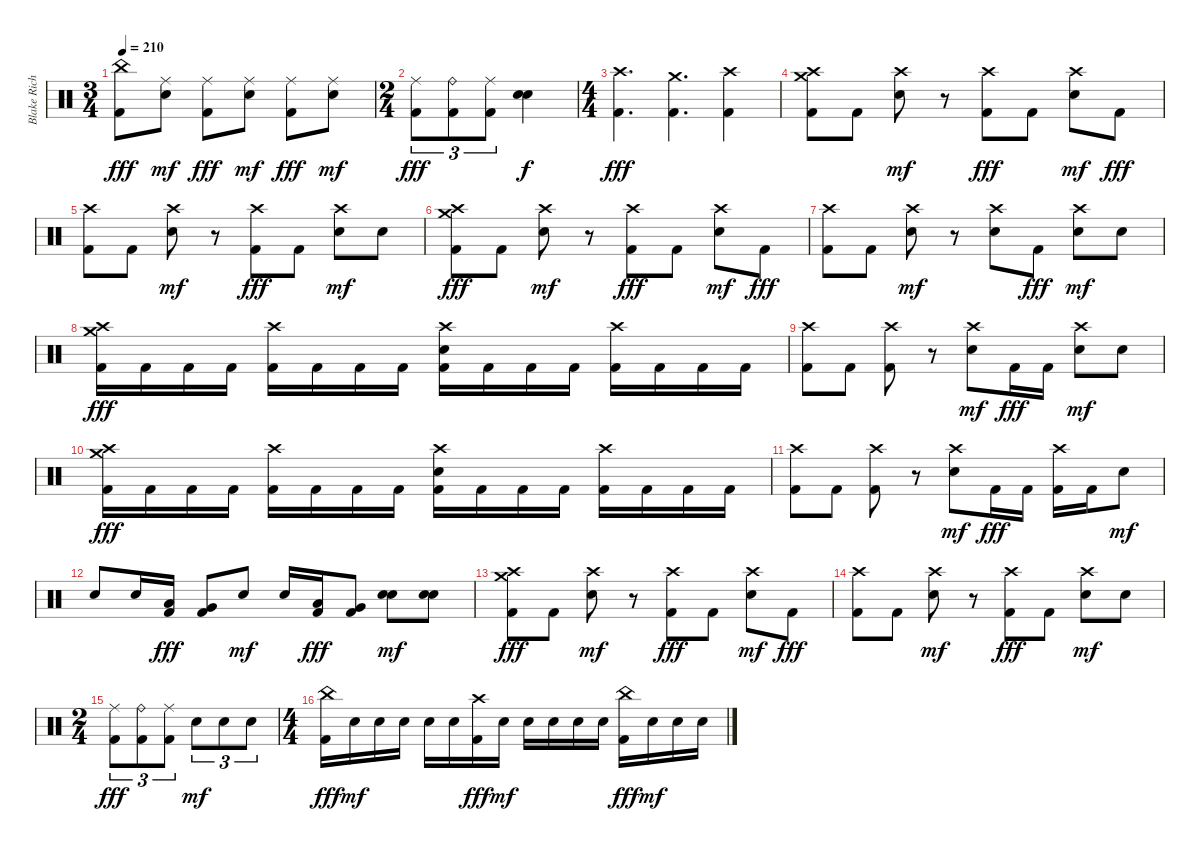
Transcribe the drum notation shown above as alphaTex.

\track ("Blake Richardson" "Blake Rich") {instrument percussion}
\staff {score}
\articulation defaults
\ts (3 4)
\tempo 210
\clef neutral
\ks c
("China (hit)" "Kick (hit) 2").8{dy fff} ("Ride (middle)" "Electric Snare (hit)").8{dy mf} ("Ride (middle)" "Kick (hit) 2").8{dy fff} ("Ride (middle)" "Electric Snare (hit)").8{dy mf} ("Ride (middle)" "Kick (hit) 2").8{dy fff} ("Ride (middle)" "Electric Snare (hit)").8{dy mf} |
\ts (2 4)
("Ride (middle)" "Kick (hit) 2").8{tu (3 2) dy fff} ("Ride (bell)" "Kick (hit) 2").8{tu (3 2)} ("Ride (middle)" "Kick (hit) 2").8{tu (3 2)} ("Electric Snare (hit)" "Electric Snare (hit)").4{bu 480 dy f} |
\ts (4 4)
("Crash high (hit)" "Kick (hit) 2").4{d dy fff} ("Crash medium (hit)" "Kick (hit) 2").4{d} ("Crash high (hit)" "Kick (hit) 2").4 |
("Crash medium (hit)" "Crash high (hit)" "Kick (hit) 2").8 "Kick (hit) 2".8 ("Crash high (hit)" "Electric Snare (hit)").8{dy mf} r.8 ("Crash high (hit)" "Kick (hit) 2").8{dy fff} "Kick (hit) 2".8 ("Crash high (hit)" "Electric Snare (hit)").8{dy mf} "Kick (hit) 2".8{dy fff} |
("Crash high (hit)" "Kick (hit) 2").8 "Kick (hit) 2".8 ("Crash high (hit)" "Electric Snare (hit)").8{dy mf} r.8 ("Crash high (hit)" "Kick (hit) 2").8{dy fff} "Kick (hit) 2".8 ("Crash high (hit)" "Electric Snare (hit)").8{dy mf} "Electric Snare (hit)".8 |
("Crash medium (hit)" "Crash high (hit)" "Kick (hit) 2").8{dy fff} "Kick (hit) 2".8 ("Crash high (hit)" "Electric Snare (hit)").8{dy mf} r.8 ("Crash high (hit)" "Kick (hit) 2").8{dy fff} "Kick (hit) 2".8 ("Crash high (hit)" "Electric Snare (hit)").8{dy mf} "Kick (hit) 2".8{dy fff} |
("Crash high (hit)" "Kick (hit) 2").8 "Kick (hit) 2".8 ("Crash high (hit)" "Electric Snare (hit)").8{dy mf} r.8 ("Crash high (hit)" "Electric Snare (hit)").8 "Kick (hit) 2".8{dy fff} ("Crash high (hit)" "Electric Snare (hit)").8{dy mf} "Electric Snare (hit)".8 |
("Crash medium (hit)" "Crash high (hit)" "Kick (hit) 2").16{dy fff} "Kick (hit) 2".16 "Kick (hit) 2".16 "Kick (hit) 2".16 ("Crash high (hit)" "Kick (hit) 2").16 "Kick (hit) 2".16 "Kick (hit) 2".16 "Kick (hit) 2".16 ("Crash high (hit)" "Electric Snare (hit)" "Kick (hit) 2").16 "Kick (hit) 2".16 "Kick (hit) 2".16 "Kick (hit) 2".16 ("Crash high (hit)" "Kick (hit) 2").16 "Kick (hit) 2".16 "Kick (hit) 2".16 "Kick (hit) 2".16 |
("Crash high (hit)" "Kick (hit) 2").8 "Kick (hit) 2".8 ("Crash high (hit)" "Kick (hit) 2").8 r.8 ("Crash high (hit)" "Electric Snare (hit)").8{dy mf} "Kick (hit) 2".16{dy fff} "Kick (hit) 2".16 ("Crash high (hit)" "Electric Snare (hit)").8{dy mf} "Electric Snare (hit)".8 |
("Crash medium (hit)" "Crash high (hit)" "Kick (hit) 2").16{dy fff} "Kick (hit) 2".16 "Kick (hit) 2".16 "Kick (hit) 2".16 ("Crash high (hit)" "Kick (hit) 2").16 "Kick (hit) 2".16 "Kick (hit) 2".16 "Kick (hit) 2".16 ("Crash high (hit)" "Electric Snare (hit)" "Kick (hit) 2").16 "Kick (hit) 2".16 "Kick (hit) 2".16 "Kick (hit) 2".16 ("Crash high (hit)" "Kick (hit) 2").16 "Kick (hit) 2".16 "Kick (hit) 2".16 "Kick (hit) 2".16 |
("Crash high (hit)" "Kick (hit) 2").8 "Kick (hit) 2".8 ("Crash high (hit)" "Kick (hit) 2").8 r.8 ("Crash high (hit)" "Electric Snare (hit)").8{dy mf} "Kick (hit) 2".16{dy fff} "Kick (hit) 2".16 ("Crash high (hit)" "Kick (hit) 2").16 "Kick (hit) 2".16 "Electric Snare (hit)".8{dy mf} |
"Electric Snare (hit)".8 "Electric Snare (hit)".16 ("Low Tom (hit)" "Kick (hit) 2").16{dy fff} ("Very Low Tom (hit)" "Kick (hit) 2").8 "Electric Snare (hit)".8{dy mf} "Electric Snare (hit)".16 ("Low Tom (hit)" "Kick (hit) 2").16{dy fff} ("Very Low Tom (hit)" "Kick (hit) 2").8 ("Electric Snare (hit)" "Electric Snare (hit)").8{bu 480 dy mf} ("Electric Snare (hit)" "Electric Snare (hit)").8{bu 480} |
("Crash medium (hit)" "Crash high (hit)" "Kick (hit) 2").8{dy fff} "Kick (hit) 2".8 ("Crash high (hit)" "Electric Snare (hit)").8{dy mf} r.8 ("Crash high (hit)" "Kick (hit) 2").8{dy fff} "Kick (hit) 2".8 ("Crash high (hit)" "Electric Snare (hit)").8{dy mf} "Kick (hit) 2".8{dy fff} |
("Crash high (hit)" "Kick (hit) 2").8 "Kick (hit) 2".8 ("Crash high (hit)" "Electric Snare (hit)").8{dy mf} r.8 ("Crash high (hit)" "Kick (hit) 2").8{dy fff} "Kick (hit) 2".8 ("Crash high (hit)" "Electric Snare (hit)").8{dy mf} "Electric Snare (hit)".8 |
\ts (2 4)
("Ride (middle)" "Kick (hit) 2").8{tu (3 2) dy fff} ("Ride (bell)" "Kick (hit) 2").8{tu (3 2)} ("Ride (middle)" "Kick (hit) 2").8{tu (3 2)} "Electric Snare (hit)".8{tu (3 2) dy mf} "Electric Snare (hit)".8{tu (3 2)} "Electric Snare (hit)".8{tu (3 2)} |
\ts (4 4)
("China (hit)" "Kick (hit) 2").16{dy fff} "Electric Snare (hit)".16{dy mf} "Electric Snare (hit)".16 "Electric Snare (hit)".16 "Electric Snare (hit)".16 "Electric Snare (hit)".16 ("Crash high (hit)" "Kick (hit) 2").16{dy fff} "Electric Snare (hit)".16{dy mf} "Electric Snare (hit)".16 "Electric Snare (hit)".16 "Electric Snare (hit)".16 "Electric Snare (hit)".16 ("China (hit)" "Kick (hit) 2").16{dy fff} "Electric Snare (hit)".16{dy mf} "Electric Snare (hit)".16 "Electric Snare (hit)".16
